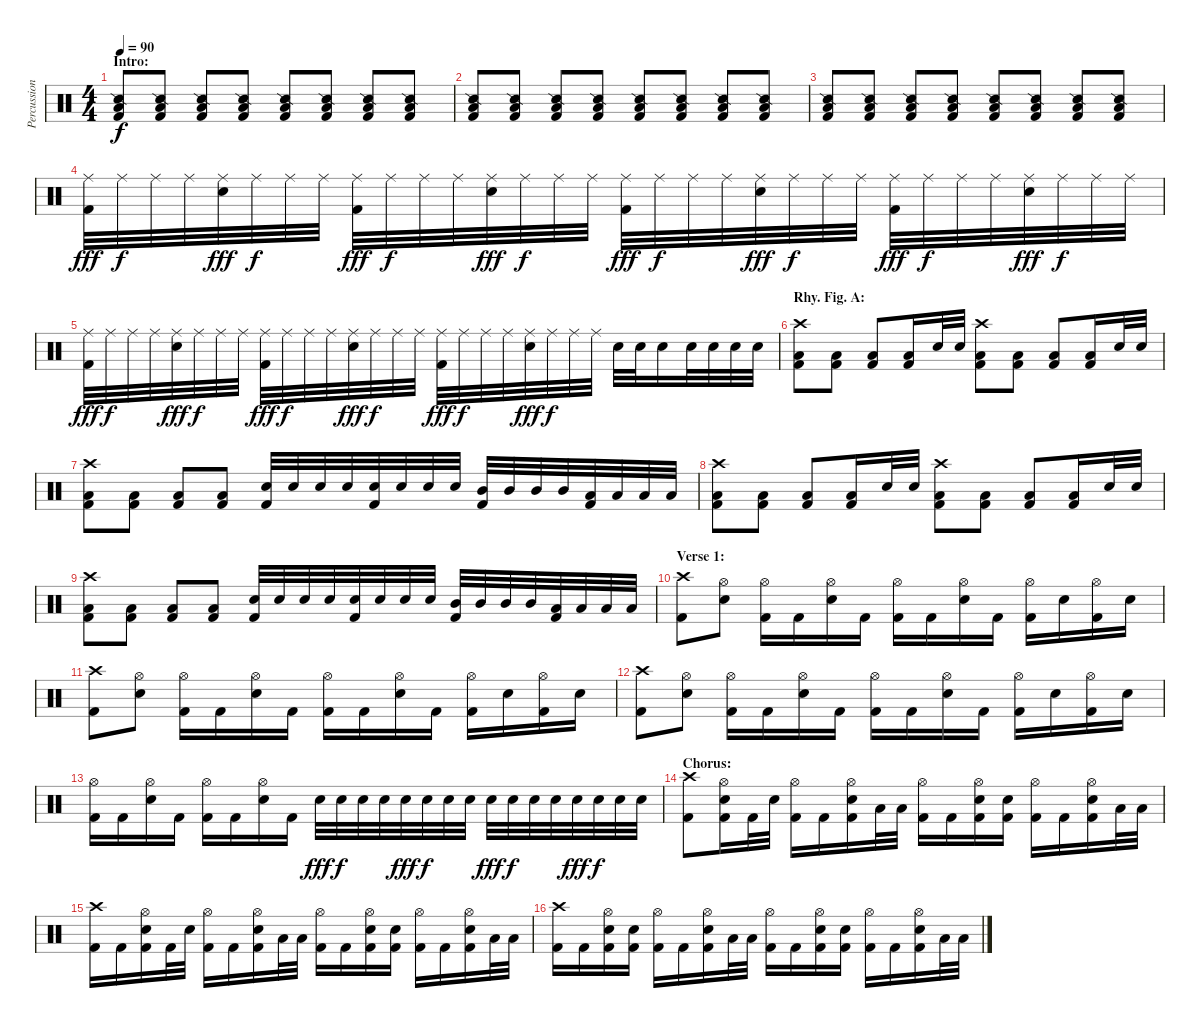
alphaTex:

\track ("Percussion" "Percussion") {instrument percussion}
\staff {score}
\articulation defaults
\ts (4 4)
\section ("" "Intro:")
\tempo 90
\clef neutral
\ks c
("Snare (side stick) 2" "Low Floor Tom (hit)" "Kick (hit) 2").8{dy f} ("Snare (side stick) 2" "Low Floor Tom (hit)" "Kick (hit) 2").8 ("Snare (side stick) 2" "Low Floor Tom (hit)" "Kick (hit) 2").8 ("Snare (side stick) 2" "Low Floor Tom (hit)" "Kick (hit) 2").8 ("Snare (side stick) 2" "Low Floor Tom (hit)" "Kick (hit) 2").8 ("Snare (side stick) 2" "Low Floor Tom (hit)" "Kick (hit) 2").8 ("Snare (side stick) 2" "Low Floor Tom (hit)" "Kick (hit) 2").8 ("Snare (side stick) 2" "Low Floor Tom (hit)" "Kick (hit) 2").8 |
("Snare (side stick) 2" "Low Floor Tom (hit)" "Kick (hit) 2").8 ("Snare (side stick) 2" "Low Floor Tom (hit)" "Kick (hit) 2").8 ("Snare (side stick) 2" "Low Floor Tom (hit)" "Kick (hit) 2").8 ("Snare (side stick) 2" "Low Floor Tom (hit)" "Kick (hit) 2").8 ("Snare (side stick) 2" "Low Floor Tom (hit)" "Kick (hit) 2").8 ("Snare (side stick) 2" "Low Floor Tom (hit)" "Kick (hit) 2").8 ("Snare (side stick) 2" "Low Floor Tom (hit)" "Kick (hit) 2").8 ("Snare (side stick) 2" "Low Floor Tom (hit)" "Kick (hit) 2").8 |
("Snare (side stick) 2" "Low Floor Tom (hit)" "Kick (hit) 2").8 ("Snare (side stick) 2" "Low Floor Tom (hit)" "Kick (hit) 2").8 ("Snare (side stick) 2" "Low Floor Tom (hit)" "Kick (hit) 2").8 ("Snare (side stick) 2" "Low Floor Tom (hit)" "Kick (hit) 2").8 ("Snare (side stick) 2" "Low Floor Tom (hit)" "Kick (hit) 2").8 ("Snare (side stick) 2" "Low Floor Tom (hit)" "Kick (hit) 2").8 ("Snare (side stick) 2" "Low Floor Tom (hit)" "Kick (hit) 2").8 ("Snare (side stick) 2" "Low Floor Tom (hit)" "Kick (hit) 2").8 |
("Ride (middle)" "Kick (hit) 2").32{dy fff} "Ride (middle)".32{dy f} "Ride (middle)".32 "Ride (middle)".32 ("Ride (middle)" "Electric Snare (hit)").32{dy fff} "Ride (middle)".32{dy f} "Ride (middle)".32 "Ride (middle)".32 ("Ride (middle)" "Kick (hit) 2").32{dy fff} "Ride (middle)".32{dy f} "Ride (middle)".32 "Ride (middle)".32 ("Ride (middle)" "Electric Snare (hit)").32{dy fff} "Ride (middle)".32{dy f} "Ride (middle)".32 "Ride (middle)".32 ("Ride (middle)" "Kick (hit) 2").32{dy fff} "Ride (middle)".32{dy f} "Ride (middle)".32 "Ride (middle)".32 ("Ride (middle)" "Electric Snare (hit)").32{dy fff} "Ride (middle)".32{dy f} "Ride (middle)".32 "Ride (middle)".32 ("Ride (middle)" "Kick (hit) 2").32{dy fff} "Ride (middle)".32{dy f} "Ride (middle)".32 "Ride (middle)".32 ("Ride (middle)" "Electric Snare (hit)").32{dy fff} "Ride (middle)".32{dy f} "Ride (middle)".32 "Ride (middle)".32 |
("Ride (middle)" "Kick (hit) 2").32{dy fff} "Ride (middle)".32{dy f} "Ride (middle)".32 "Ride (middle)".32 ("Ride (middle)" "Electric Snare (hit)").32{dy fff} "Ride (middle)".32{dy f} "Ride (middle)".32 "Ride (middle)".32 ("Ride (middle)" "Kick (hit) 2").32{dy fff} "Ride (middle)".32{dy f} "Ride (middle)".32 "Ride (middle)".32 ("Ride (middle)" "Electric Snare (hit)").32{dy fff} "Ride (middle)".32{dy f} "Ride (middle)".32 "Ride (middle)".32 ("Ride (middle)" "Kick (hit) 2").32{dy fff} "Ride (middle)".32{dy f} "Ride (middle)".32 "Ride (middle)".32 ("Ride (middle)" "Electric Snare (hit)").32{dy fff} "Ride (middle)".32{dy f} "Ride (middle)".32 "Ride (middle)".32 "Electric Snare (hit)".32 "Electric Snare (hit)".32 "Electric Snare (hit)".16 "Electric Snare (hit)".32 "Electric Snare (hit)".32 "Electric Snare (hit)".32 "Electric Snare (hit)".32 |
\section ("" "Rhy. Fig. A:")
("Crash high (hit)" "Low Floor Tom (hit)" "Kick (hit) 2").8 ("Low Floor Tom (hit)" "Kick (hit) 2").8 ("Low Floor Tom (hit)" "Kick (hit) 2").8 ("Low Floor Tom (hit)" "Kick (hit) 2").16 "Electric Snare (hit)".32 "Electric Snare (hit)".32 ("Crash high (hit)" "Low Floor Tom (hit)" "Kick (hit) 2").8 ("Low Floor Tom (hit)" "Kick (hit) 2").8 ("Low Floor Tom (hit)" "Kick (hit) 2").8 ("Low Floor Tom (hit)" "Kick (hit) 2").16 "Electric Snare (hit)".32 "Electric Snare (hit)".32 |
("Crash high (hit)" "Low Floor Tom (hit)" "Kick (hit) 2").8 ("Low Floor Tom (hit)" "Kick (hit) 2").8 ("Low Floor Tom (hit)" "Kick (hit) 2").8 ("Low Floor Tom (hit)" "Kick (hit) 2").8 ("Electric Snare (hit)" "Kick (hit) 2").32 "Electric Snare (hit)".32 "Electric Snare (hit)".32 "Electric Snare (hit)".32 ("Electric Snare (hit)" "Kick (hit) 2").32 "Electric Snare (hit)".32 "Electric Snare (hit)".32 "Electric Snare (hit)".32 ("Mid Tom (hit)" "Kick (hit) 2").32 "Mid Tom (hit)".32 "Mid Tom (hit)".32 "Mid Tom (hit)".32 ("Low Tom (hit)" "Kick (hit) 2").32 "Low Tom (hit)".32 "Low Tom (hit)".32 "Low Tom (hit)".32 |
("Crash high (hit)" "Low Floor Tom (hit)" "Kick (hit) 2").8 ("Low Floor Tom (hit)" "Kick (hit) 2").8 ("Low Floor Tom (hit)" "Kick (hit) 2").8 ("Low Floor Tom (hit)" "Kick (hit) 2").16 "Electric Snare (hit)".32 "Electric Snare (hit)".32 ("Crash high (hit)" "Low Floor Tom (hit)" "Kick (hit) 2").8 ("Low Floor Tom (hit)" "Kick (hit) 2").8 ("Low Floor Tom (hit)" "Kick (hit) 2").8 ("Low Floor Tom (hit)" "Kick (hit) 2").16 "Electric Snare (hit)".32 "Electric Snare (hit)".32 |
("Crash high (hit)" "Low Floor Tom (hit)" "Kick (hit) 2").8 ("Low Floor Tom (hit)" "Kick (hit) 2").8 ("Low Floor Tom (hit)" "Kick (hit) 2").8 ("Low Floor Tom (hit)" "Kick (hit) 2").8 ("Electric Snare (hit)" "Kick (hit) 2").32 "Electric Snare (hit)".32 "Electric Snare (hit)".32 "Electric Snare (hit)".32 ("Electric Snare (hit)" "Kick (hit) 2").32 "Electric Snare (hit)".32 "Electric Snare (hit)".32 "Electric Snare (hit)".32 ("Mid Tom (hit)" "Kick (hit) 2").32 "Mid Tom (hit)".32 "Mid Tom (hit)".32 "Mid Tom (hit)".32 ("Low Tom (hit)" "Kick (hit) 2").32 "Low Tom (hit)".32 "Low Tom (hit)".32 "Low Tom (hit)".32 |
\section ("" "Verse 1:")
("Crash high (hit)" "Kick (hit) 2").8 ("Hi-Hat (open)" "Electric Snare (hit)").8 ("Hi-Hat (open)" "Kick (hit) 2").16 "Kick (hit) 2".16 ("Hi-Hat (open)" "Electric Snare (hit)").16 "Kick (hit) 2".16 ("Hi-Hat (open)" "Kick (hit) 2").16 "Kick (hit) 2".16 ("Hi-Hat (open)" "Electric Snare (hit)").16 "Kick (hit) 2".16 ("Hi-Hat (open)" "Kick (hit) 2").16 "Electric Snare (hit)".16 ("Hi-Hat (open)" "Kick (hit) 2").16 "Electric Snare (hit)".16 |
("Crash high (hit)" "Kick (hit) 2").8 ("Hi-Hat (open)" "Electric Snare (hit)").8 ("Hi-Hat (open)" "Kick (hit) 2").16 "Kick (hit) 2".16 ("Hi-Hat (open)" "Electric Snare (hit)").16 "Kick (hit) 2".16 ("Hi-Hat (open)" "Kick (hit) 2").16 "Kick (hit) 2".16 ("Hi-Hat (open)" "Electric Snare (hit)").16 "Kick (hit) 2".16 ("Hi-Hat (open)" "Kick (hit) 2").16 "Electric Snare (hit)".16 ("Hi-Hat (open)" "Kick (hit) 2").16 "Electric Snare (hit)".16 |
("Crash high (hit)" "Kick (hit) 2").8 ("Hi-Hat (open)" "Electric Snare (hit)").8 ("Hi-Hat (open)" "Kick (hit) 2").16 "Kick (hit) 2".16 ("Hi-Hat (open)" "Electric Snare (hit)").16 "Kick (hit) 2".16 ("Hi-Hat (open)" "Kick (hit) 2").16 "Kick (hit) 2".16 ("Hi-Hat (open)" "Electric Snare (hit)").16 "Kick (hit) 2".16 ("Hi-Hat (open)" "Kick (hit) 2").16 "Electric Snare (hit)".16 ("Hi-Hat (open)" "Kick (hit) 2").16 "Electric Snare (hit)".16 |
("Hi-Hat (open)" "Kick (hit) 2").16 "Kick (hit) 2".16 ("Hi-Hat (open)" "Electric Snare (hit)").16 "Kick (hit) 2".16 ("Hi-Hat (open)" "Kick (hit) 2").16 "Kick (hit) 2".16 ("Hi-Hat (open)" "Electric Snare (hit)").16 "Kick (hit) 2".16 "Electric Snare (hit)".32{dy fff} "Electric Snare (hit)".32{dy f} "Electric Snare (hit)".32 "Electric Snare (hit)".32 "Electric Snare (hit)".32{dy fff} "Electric Snare (hit)".32{dy f} "Electric Snare (hit)".32 "Electric Snare (hit)".32 "Electric Snare (hit)".32{dy fff} "Electric Snare (hit)".32{dy f} "Electric Snare (hit)".32 "Electric Snare (hit)".32 "Electric Snare (hit)".32{dy fff} "Electric Snare (hit)".32{dy f} "Electric Snare (hit)".32 "Electric Snare (hit)".32 |
\section ("" "Chorus:")
("Crash high (hit)" "Kick (hit) 2").8 ("Hi-Hat (open)" "Electric Snare (hit)" "Kick (hit) 2").16 "Kick (hit) 2".32 "Electric Snare (hit)".32 ("Hi-Hat (open)" "Kick (hit) 2").16 "Kick (hit) 2".16 ("Hi-Hat (open)" "Electric Snare (hit)" "Kick (hit) 2").16 "Low Floor Tom (hit)".32 "Low Floor Tom (hit)".32 ("Hi-Hat (open)" "Kick (hit) 2").16 "Kick (hit) 2".16 ("Hi-Hat (open)" "Electric Snare (hit)" "Kick (hit) 2").16 ("Electric Snare (hit)" "Kick (hit) 2").16 ("Hi-Hat (open)" "Kick (hit) 2").16 "Kick (hit) 2".16 ("Hi-Hat (open)" "Electric Snare (hit)" "Kick (hit) 2").16 "Low Floor Tom (hit)".32 "Low Floor Tom (hit)".32 |
("Crash high (hit)" "Kick (hit) 2").16 "Kick (hit) 2".16 ("Hi-Hat (open)" "Electric Snare (hit)" "Kick (hit) 2").16 "Kick (hit) 2".32 "Electric Snare (hit)".32 ("Hi-Hat (open)" "Kick (hit) 2").16 "Kick (hit) 2".16 ("Hi-Hat (open)" "Electric Snare (hit)" "Kick (hit) 2").16 "Low Floor Tom (hit)".32 "Low Floor Tom (hit)".32 ("Hi-Hat (open)" "Kick (hit) 2").16 "Kick (hit) 2".16 ("Hi-Hat (open)" "Electric Snare (hit)" "Kick (hit) 2").16 ("Electric Snare (hit)" "Kick (hit) 2").16 ("Hi-Hat (open)" "Kick (hit) 2").16 "Kick (hit) 2".16 ("Hi-Hat (open)" "Electric Snare (hit)" "Kick (hit) 2").16 "Low Floor Tom (hit)".32 "Low Floor Tom (hit)".32 |
("Crash high (hit)" "Kick (hit) 2").16 "Kick (hit) 2".16 ("Hi-Hat (open)" "Electric Snare (hit)" "Kick (hit) 2").16 ("Electric Snare (hit)" "Kick (hit) 2").16 ("Hi-Hat (open)" "Kick (hit) 2").16 "Kick (hit) 2".16 ("Hi-Hat (open)" "Electric Snare (hit)" "Kick (hit) 2").16 "Low Floor Tom (hit)".32 "Low Floor Tom (hit)".32 ("Hi-Hat (open)" "Kick (hit) 2").16 "Kick (hit) 2".16 ("Hi-Hat (open)" "Electric Snare (hit)" "Kick (hit) 2").16 ("Electric Snare (hit)" "Kick (hit) 2").16 ("Hi-Hat (open)" "Kick (hit) 2").16 "Kick (hit) 2".16 ("Hi-Hat (open)" "Electric Snare (hit)" "Kick (hit) 2").16 "Low Floor Tom (hit)".32 "Low Floor Tom (hit)".32
